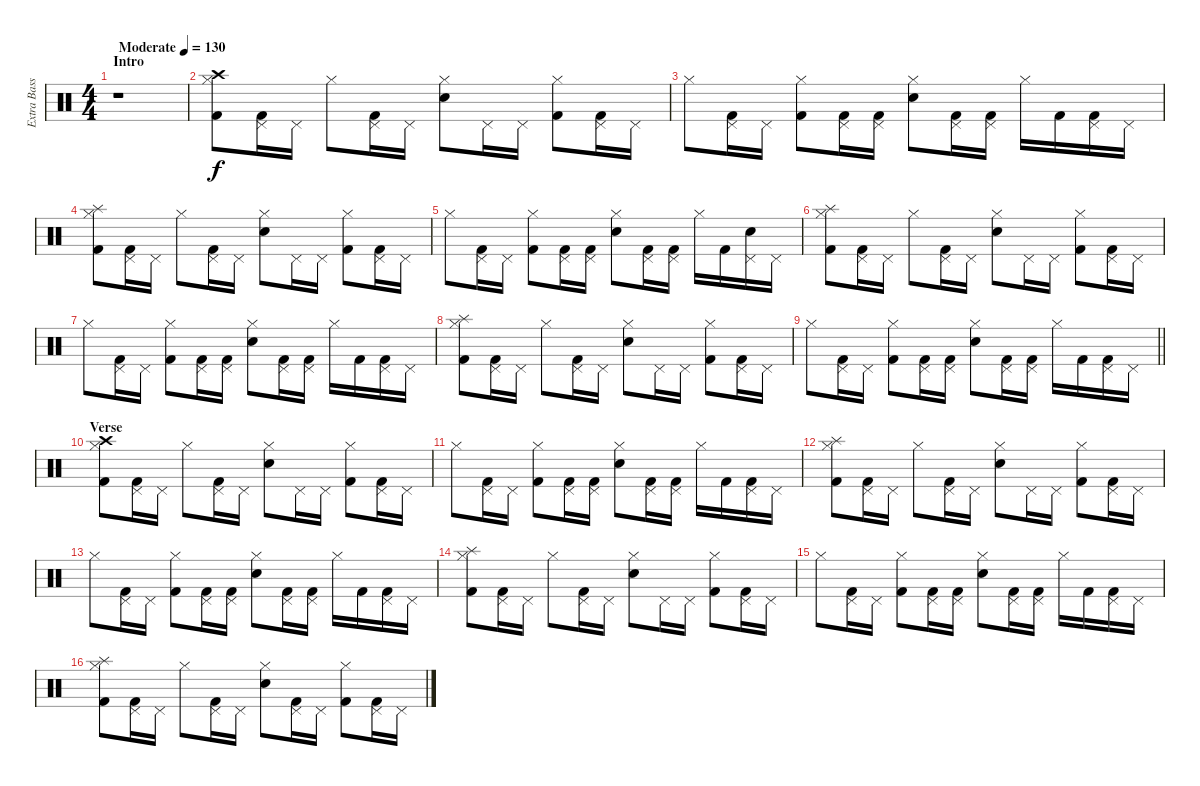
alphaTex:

\track ("Extra BassDrum" "Extra Bass") {instrument percussion}
\staff {score}
\articulation defaults
\ts (4 4)
\section ("" "Intro")
\tempo (130 "Moderate")
\clef neutral
\ks c
r.1{dy f} |
("Crash high (hit)" "Hi-Hat (closed)" "Kick (hit) 2").8 ("Pedal Hi-Hat (hit)" "Kick (hit) 2").16 "Pedal Hi-Hat (hit)".16 "Hi-Hat (closed)".8 ("Pedal Hi-Hat (hit)" "Kick (hit) 2").16 "Pedal Hi-Hat (hit)".16 ("Hi-Hat (closed)" "Snare (hit) 2").8 "Pedal Hi-Hat (hit)".16 "Pedal Hi-Hat (hit)".16 ("Hi-Hat (closed)" "Kick (hit) 2").8 ("Pedal Hi-Hat (hit)" "Kick (hit) 2").16 "Pedal Hi-Hat (hit)".16 |
"Hi-Hat (closed)".8 ("Pedal Hi-Hat (hit)" "Kick (hit) 2").16 "Pedal Hi-Hat (hit)".16 ("Hi-Hat (closed)" "Kick (hit) 2").8 ("Pedal Hi-Hat (hit)" "Kick (hit) 2").16 ("Pedal Hi-Hat (hit)" "Kick (hit) 2").16 ("Hi-Hat (closed)" "Snare (hit) 2").8 ("Pedal Hi-Hat (hit)" "Kick (hit) 2").16 ("Pedal Hi-Hat (hit)" "Kick (hit) 2").16 "Hi-Hat (closed)".16 "Kick (hit) 2".16 ("Pedal Hi-Hat (hit)" "Kick (hit) 2").16 "Pedal Hi-Hat (hit)".16 |
("Splash (hit)" "Hi-Hat (closed)" "Kick (hit) 2").8 ("Pedal Hi-Hat (hit)" "Kick (hit) 2").16 "Pedal Hi-Hat (hit)".16 "Hi-Hat (closed)".8 ("Pedal Hi-Hat (hit)" "Kick (hit) 2").16 "Pedal Hi-Hat (hit)".16 ("Hi-Hat (closed)" "Snare (hit) 2").8 "Pedal Hi-Hat (hit)".16 "Pedal Hi-Hat (hit)".16 ("Hi-Hat (closed)" "Kick (hit) 2").8 ("Pedal Hi-Hat (hit)" "Kick (hit) 2").16 "Pedal Hi-Hat (hit)".16 |
"Hi-Hat (closed)".8 ("Pedal Hi-Hat (hit)" "Kick (hit) 2").16 "Pedal Hi-Hat (hit)".16 ("Hi-Hat (closed)" "Kick (hit) 2").8 ("Pedal Hi-Hat (hit)" "Kick (hit) 2").16 ("Pedal Hi-Hat (hit)" "Kick (hit) 2").16 ("Hi-Hat (closed)" "Snare (hit) 2").8 ("Pedal Hi-Hat (hit)" "Kick (hit) 2").16 ("Pedal Hi-Hat (hit)" "Kick (hit) 2").16 "Hi-Hat (closed)".16 "Kick (hit) 2".16 ("Pedal Hi-Hat (hit)" "Snare (hit) 2").16 "Pedal Hi-Hat (hit)".16 |
("Splash (hit)" "Hi-Hat (closed)" "Kick (hit) 2").8 ("Pedal Hi-Hat (hit)" "Kick (hit) 2").16 "Pedal Hi-Hat (hit)".16 "Hi-Hat (closed)".8 ("Pedal Hi-Hat (hit)" "Kick (hit) 2").16 "Pedal Hi-Hat (hit)".16 ("Hi-Hat (closed)" "Snare (hit) 2").8 "Pedal Hi-Hat (hit)".16 "Pedal Hi-Hat (hit)".16 ("Hi-Hat (closed)" "Kick (hit) 2").8 ("Pedal Hi-Hat (hit)" "Kick (hit) 2").16 "Pedal Hi-Hat (hit)".16 |
"Hi-Hat (closed)".8 ("Pedal Hi-Hat (hit)" "Kick (hit) 2").16 "Pedal Hi-Hat (hit)".16 ("Hi-Hat (closed)" "Kick (hit) 2").8 ("Pedal Hi-Hat (hit)" "Kick (hit) 2").16 ("Pedal Hi-Hat (hit)" "Kick (hit) 2").16 ("Hi-Hat (closed)" "Snare (hit) 2").8 ("Pedal Hi-Hat (hit)" "Kick (hit) 2").16 ("Pedal Hi-Hat (hit)" "Kick (hit) 2").16 "Hi-Hat (closed)".16 "Kick (hit) 2".16 ("Pedal Hi-Hat (hit)" "Kick (hit) 2").16 "Pedal Hi-Hat (hit)".16 |
("Splash (hit)" "Hi-Hat (closed)" "Kick (hit) 2").8 ("Pedal Hi-Hat (hit)" "Kick (hit) 2").16 "Pedal Hi-Hat (hit)".16 "Hi-Hat (closed)".8 ("Pedal Hi-Hat (hit)" "Kick (hit) 2").16 "Pedal Hi-Hat (hit)".16 ("Hi-Hat (closed)" "Snare (hit) 2").8 "Pedal Hi-Hat (hit)".16 "Pedal Hi-Hat (hit)".16 ("Hi-Hat (closed)" "Kick (hit) 2").8 ("Pedal Hi-Hat (hit)" "Kick (hit) 2").16 "Pedal Hi-Hat (hit)".16 |
\barLineRight lightlight "Hi-Hat (closed)".8
("Pedal Hi-Hat (hit)" "Kick (hit) 2").16 "Pedal Hi-Hat (hit)".16 ("Hi-Hat (closed)" "Kick (hit) 2").8 ("Pedal Hi-Hat (hit)" "Kick (hit) 2").16 ("Pedal Hi-Hat (hit)" "Kick (hit) 2").16 ("Hi-Hat (closed)" "Snare (hit) 2").8 ("Pedal Hi-Hat (hit)" "Kick (hit) 2").16 ("Pedal Hi-Hat (hit)" "Kick (hit) 2").16 "Hi-Hat (closed)".16 "Kick (hit) 2".16 ("Pedal Hi-Hat (hit)" "Kick (hit) 2").16 "Pedal Hi-Hat (hit)".16 |
\section ("" "Verse")
("Crash high (hit)" "Hi-Hat (closed)" "Kick (hit) 2").8 ("Pedal Hi-Hat (hit)" "Kick (hit) 2").16 "Pedal Hi-Hat (hit)".16 "Hi-Hat (closed)".8 ("Pedal Hi-Hat (hit)" "Kick (hit) 2").16 "Pedal Hi-Hat (hit)".16 ("Hi-Hat (closed)" "Snare (hit) 2").8 "Pedal Hi-Hat (hit)".16 "Pedal Hi-Hat (hit)".16 ("Hi-Hat (closed)" "Kick (hit) 2").8 ("Pedal Hi-Hat (hit)" "Kick (hit) 2").16 "Pedal Hi-Hat (hit)".16 |
"Hi-Hat (closed)".8 ("Pedal Hi-Hat (hit)" "Kick (hit) 2").16 "Pedal Hi-Hat (hit)".16 ("Hi-Hat (closed)" "Kick (hit) 2").8 ("Pedal Hi-Hat (hit)" "Kick (hit) 2").16 ("Pedal Hi-Hat (hit)" "Kick (hit) 2").16 ("Hi-Hat (closed)" "Snare (hit) 2").8 ("Pedal Hi-Hat (hit)" "Kick (hit) 2").16 ("Pedal Hi-Hat (hit)" "Kick (hit) 2").16 "Hi-Hat (closed)".16 "Kick (hit) 2".16 ("Pedal Hi-Hat (hit)" "Kick (hit) 2").16 "Pedal Hi-Hat (hit)".16 |
("Splash (hit)" "Hi-Hat (closed)" "Kick (hit) 2").8 ("Pedal Hi-Hat (hit)" "Kick (hit) 2").16 "Pedal Hi-Hat (hit)".16 "Hi-Hat (closed)".8 ("Pedal Hi-Hat (hit)" "Kick (hit) 2").16 "Pedal Hi-Hat (hit)".16 ("Hi-Hat (closed)" "Snare (hit) 2").8 "Pedal Hi-Hat (hit)".16 "Pedal Hi-Hat (hit)".16 ("Hi-Hat (closed)" "Kick (hit) 2").8 ("Pedal Hi-Hat (hit)" "Kick (hit) 2").16 "Pedal Hi-Hat (hit)".16 |
"Hi-Hat (closed)".8 ("Pedal Hi-Hat (hit)" "Kick (hit) 2").16 "Pedal Hi-Hat (hit)".16 ("Hi-Hat (closed)" "Kick (hit) 2").8 ("Pedal Hi-Hat (hit)" "Kick (hit) 2").16 ("Pedal Hi-Hat (hit)" "Kick (hit) 2").16 ("Hi-Hat (closed)" "Snare (hit) 2").8 ("Pedal Hi-Hat (hit)" "Kick (hit) 2").16 ("Pedal Hi-Hat (hit)" "Kick (hit) 2").16 "Hi-Hat (closed)".16 "Kick (hit) 2".16 ("Pedal Hi-Hat (hit)" "Kick (hit) 2").16 "Pedal Hi-Hat (hit)".16 |
("Splash (hit)" "Hi-Hat (closed)" "Kick (hit) 2").8 ("Pedal Hi-Hat (hit)" "Kick (hit) 2").16 "Pedal Hi-Hat (hit)".16 "Hi-Hat (closed)".8 ("Pedal Hi-Hat (hit)" "Kick (hit) 2").16 "Pedal Hi-Hat (hit)".16 ("Hi-Hat (closed)" "Snare (hit) 2").8 "Pedal Hi-Hat (hit)".16 "Pedal Hi-Hat (hit)".16 ("Hi-Hat (closed)" "Kick (hit) 2").8 ("Pedal Hi-Hat (hit)" "Kick (hit) 2").16 "Pedal Hi-Hat (hit)".16 |
"Hi-Hat (closed)".8 ("Pedal Hi-Hat (hit)" "Kick (hit) 2").16 "Pedal Hi-Hat (hit)".16 ("Hi-Hat (closed)" "Kick (hit) 2").8 ("Pedal Hi-Hat (hit)" "Kick (hit) 2").16 ("Pedal Hi-Hat (hit)" "Kick (hit) 2").16 ("Hi-Hat (closed)" "Snare (hit) 2").8 ("Pedal Hi-Hat (hit)" "Kick (hit) 2").16 ("Pedal Hi-Hat (hit)" "Kick (hit) 2").16 "Hi-Hat (closed)".16 "Kick (hit) 2".16 ("Pedal Hi-Hat (hit)" "Kick (hit) 2").16 "Pedal Hi-Hat (hit)".16 |
("Splash (hit)" "Hi-Hat (closed)" "Kick (hit) 2").8 ("Pedal Hi-Hat (hit)" "Kick (hit) 2").16 "Pedal Hi-Hat (hit)".16 "Hi-Hat (closed)".8 ("Pedal Hi-Hat (hit)" "Kick (hit) 2").16 "Pedal Hi-Hat (hit)".16 ("Hi-Hat (closed)" "Snare (hit) 2").8 ("Pedal Hi-Hat (hit)" "Kick (hit) 2").16 "Pedal Hi-Hat (hit)".16 ("Hi-Hat (closed)" "Kick (hit) 2").8 ("Pedal Hi-Hat (hit)" "Kick (hit) 2").16 "Pedal Hi-Hat (hit)".16
